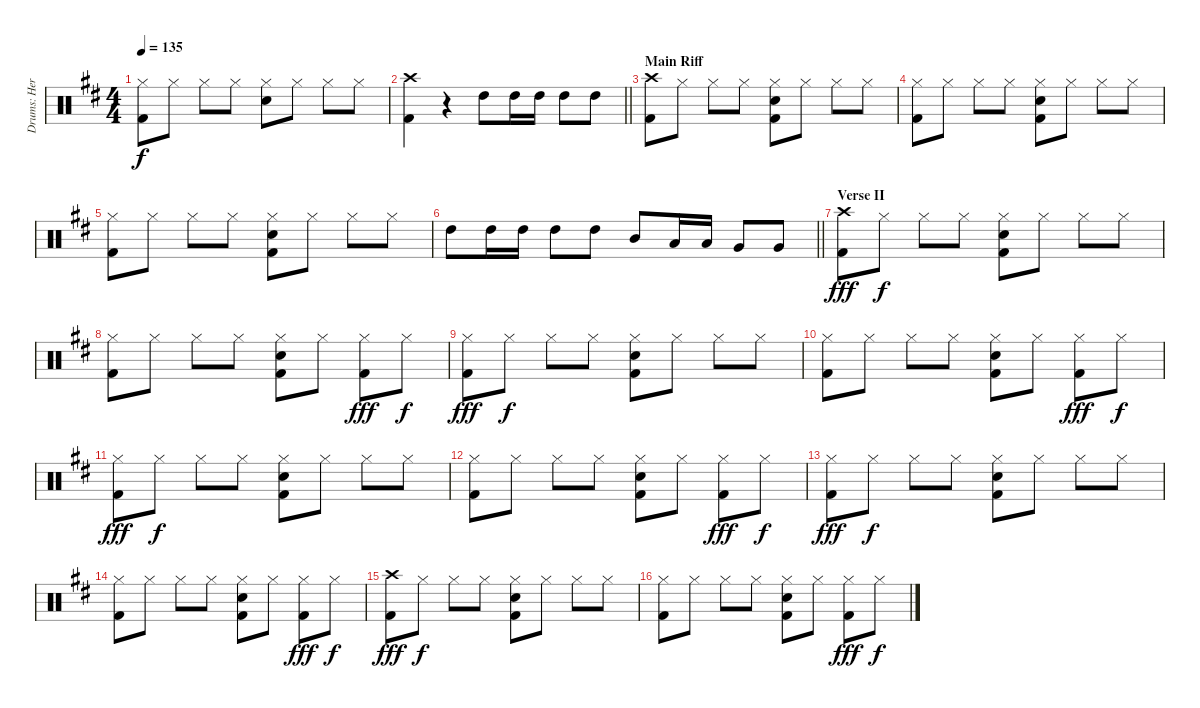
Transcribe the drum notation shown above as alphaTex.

\track ("Drums: Herman" "Drums: Her") {instrument percussion}
\staff {score}
\articulation defaults
\ts (4 4)
\tempo 135
\clef neutral
\ks d
("Hi-Hat (closed)" "Kick (hit) 2").8{dy f} "Hi-Hat (closed)".8 "Hi-Hat (closed)".8 "Hi-Hat (closed)".8 ("Hi-Hat (closed)" "Snare (hit) 2").8 "Hi-Hat (closed)".8 "Hi-Hat (closed)".8 "Hi-Hat (closed)".8 |
\barLineRight lightlight
("Crash high (hit)" "Kick (hit) 2").4 r.4 "High Tom (hit)".8 "High Tom (hit)".16 "High Tom (hit)".16 "High Tom (hit)".8 "High Tom (hit)".8 |
\section ("" "Main Riff")
("Crash high (hit)" "Kick (hit) 2").8 "Hi-Hat (closed)".8 "Hi-Hat (closed)".8 "Hi-Hat (closed)".8 ("Hi-Hat (closed)" "Snare (hit) 2" "Kick (hit) 2").8 "Hi-Hat (closed)".8 "Hi-Hat (closed)".8 "Hi-Hat (closed)".8 |
("Hi-Hat (closed)" "Kick (hit) 2").8 "Hi-Hat (closed)".8 "Hi-Hat (closed)".8 "Hi-Hat (closed)".8 ("Hi-Hat (closed)" "Snare (hit) 2" "Kick (hit) 2").8 "Hi-Hat (closed)".8 "Hi-Hat (closed)".8 "Hi-Hat (closed)".8 |
("Hi-Hat (closed)" "Kick (hit) 2").8 "Hi-Hat (closed)".8 "Hi-Hat (closed)".8 "Hi-Hat (closed)".8 ("Hi-Hat (closed)" "Snare (hit) 2" "Kick (hit) 2").8 "Hi-Hat (closed)".8 "Hi-Hat (closed)".8 "Hi-Hat (closed)".8 |
\barLineRight lightlight "High Tom (hit)".8 "High Tom (hit)".16 "High Tom (hit)".16 "High Tom (hit)".8 "High Tom (hit)".8 "Mid Tom (hit)".8 "Low Tom (hit)".16 "Low Tom (hit)".16 "Very Low Tom (hit)".8 "Very Low Tom (hit)".8
|
\section ("" "Verse II")
("Crash high (hit)" "Kick (hit) 2").8{dy fff} "Hi-Hat (closed)".8{dy f} "Hi-Hat (closed)".8 "Hi-Hat (closed)".8 ("Hi-Hat (closed)" "Snare (hit) 2" "Kick (hit) 2").8 "Hi-Hat (closed)".8 "Hi-Hat (closed)".8 "Hi-Hat (closed)".8 |
("Hi-Hat (closed)" "Kick (hit) 2").8 "Hi-Hat (closed)".8 "Hi-Hat (closed)".8 "Hi-Hat (closed)".8 ("Hi-Hat (closed)" "Snare (hit) 2" "Kick (hit) 2").8 "Hi-Hat (closed)".8 ("Hi-Hat (closed)" "Kick (hit) 2").8{dy fff} "Hi-Hat (closed)".8{dy f} |
("Hi-Hat (closed)" "Kick (hit) 2").8{dy fff} "Hi-Hat (closed)".8{dy f} "Hi-Hat (closed)".8 "Hi-Hat (closed)".8 ("Hi-Hat (closed)" "Snare (hit) 2" "Kick (hit) 2").8 "Hi-Hat (closed)".8 "Hi-Hat (closed)".8 "Hi-Hat (closed)".8 |
("Hi-Hat (closed)" "Kick (hit) 2").8 "Hi-Hat (closed)".8 "Hi-Hat (closed)".8 "Hi-Hat (closed)".8 ("Hi-Hat (closed)" "Snare (hit) 2" "Kick (hit) 2").8 "Hi-Hat (closed)".8 ("Hi-Hat (closed)" "Kick (hit) 2").8{dy fff} "Hi-Hat (closed)".8{dy f} |
("Hi-Hat (closed)" "Kick (hit) 2").8{dy fff} "Hi-Hat (closed)".8{dy f} "Hi-Hat (closed)".8 "Hi-Hat (closed)".8 ("Hi-Hat (closed)" "Snare (hit) 2" "Kick (hit) 2").8 "Hi-Hat (closed)".8 "Hi-Hat (closed)".8 "Hi-Hat (closed)".8 |
("Hi-Hat (closed)" "Kick (hit) 2").8 "Hi-Hat (closed)".8 "Hi-Hat (closed)".8 "Hi-Hat (closed)".8 ("Hi-Hat (closed)" "Snare (hit) 2" "Kick (hit) 2").8 "Hi-Hat (closed)".8 ("Hi-Hat (closed)" "Kick (hit) 2").8{dy fff} "Hi-Hat (closed)".8{dy f} |
("Hi-Hat (closed)" "Kick (hit) 2").8{dy fff} "Hi-Hat (closed)".8{dy f} "Hi-Hat (closed)".8 "Hi-Hat (closed)".8 ("Hi-Hat (closed)" "Snare (hit) 2" "Kick (hit) 2").8 "Hi-Hat (closed)".8 "Hi-Hat (closed)".8 "Hi-Hat (closed)".8 |
("Hi-Hat (closed)" "Kick (hit) 2").8 "Hi-Hat (closed)".8 "Hi-Hat (closed)".8 "Hi-Hat (closed)".8 ("Hi-Hat (closed)" "Snare (hit) 2" "Kick (hit) 2").8 "Hi-Hat (closed)".8 ("Hi-Hat (closed)" "Kick (hit) 2").8{dy fff} "Hi-Hat (closed)".8{dy f} |
("Crash high (hit)" "Kick (hit) 2").8{dy fff} "Hi-Hat (closed)".8{dy f} "Hi-Hat (closed)".8 "Hi-Hat (closed)".8 ("Hi-Hat (closed)" "Snare (hit) 2" "Kick (hit) 2").8 "Hi-Hat (closed)".8 "Hi-Hat (closed)".8 "Hi-Hat (closed)".8 |
("Hi-Hat (closed)" "Kick (hit) 2").8 "Hi-Hat (closed)".8 "Hi-Hat (closed)".8 "Hi-Hat (closed)".8 ("Hi-Hat (closed)" "Snare (hit) 2" "Kick (hit) 2").8 "Hi-Hat (closed)".8 ("Hi-Hat (closed)" "Kick (hit) 2").8{dy fff} "Hi-Hat (closed)".8{dy f}
